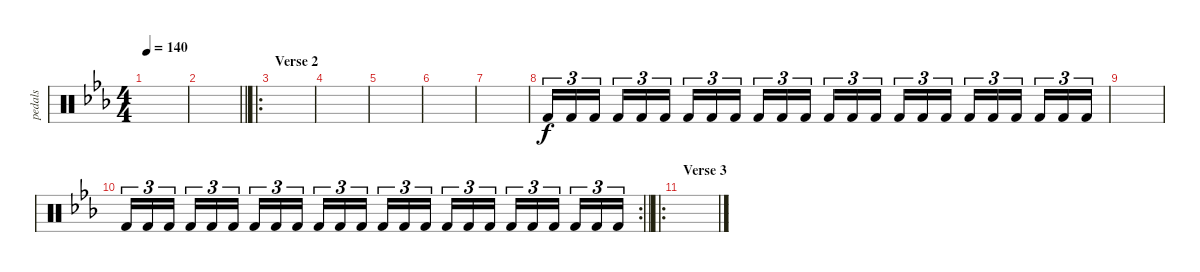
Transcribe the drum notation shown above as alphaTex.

\track ("pedals" "pedals") {instrument percussion}
\staff {score}
\articulation defaults
\ts (4 4)
\tempo 140
\clef neutral
\ks cminor
|
\barLineRight lightlight
|
\ro
\section ("" "Verse 2")
|
|
|
|
|
"Kick (hit) 2".16{tu (3 2)} "Kick (hit) 2".16{tu (3 2)} "Kick (hit) 2".16{tu (3 2) beam splitsecondary} "Kick (hit) 2".16{tu (3 2)} "Kick (hit) 2".16{tu (3 2)} "Kick (hit) 2".16{tu (3 2)} "Kick (hit) 2".16{tu (3 2)} "Kick (hit) 2".16{tu (3 2)} "Kick (hit) 2".16{tu (3 2) beam splitsecondary} "Kick (hit) 2".16{tu (3 2)} "Kick (hit) 2".16{tu (3 2)} "Kick (hit) 2".16{tu (3 2)} "Kick (hit) 2".16{tu (3 2)} "Kick (hit) 2".16{tu (3 2)} "Kick (hit) 2".16{tu (3 2) beam splitsecondary} "Kick (hit) 2".16{tu (3 2)} "Kick (hit) 2".16{tu (3 2)} "Kick (hit) 2".16{tu (3 2)} "Kick (hit) 2".16{tu (3 2)} "Kick (hit) 2".16{tu (3 2)} "Kick (hit) 2".16{tu (3 2) beam splitsecondary} "Kick (hit) 2".16{tu (3 2)} "Kick (hit) 2".16{tu (3 2)} "Kick (hit) 2".16{tu (3 2)} |
|
\rc 2
\barLineRight lightlight "Kick (hit) 2".16{tu (3 2)} "Kick (hit) 2".16{tu (3 2)} "Kick (hit) 2".16{tu (3 2) beam splitsecondary} "Kick (hit) 2".16{tu (3 2)} "Kick (hit) 2".16{tu (3 2)} "Kick (hit) 2".16{tu (3 2)} "Kick (hit) 2".16{tu (3 2)} "Kick (hit) 2".16{tu (3 2)} "Kick (hit) 2".16{tu (3 2) beam splitsecondary} "Kick (hit) 2".16{tu (3 2)} "Kick (hit) 2".16{tu (3 2)} "Kick (hit) 2".16{tu (3 2)} "Kick (hit) 2".16{tu (3 2)} "Kick (hit) 2".16{tu (3 2)} "Kick (hit) 2".16{tu (3 2) beam splitsecondary} "Kick (hit) 2".16{tu (3 2)} "Kick (hit) 2".16{tu (3 2)} "Kick (hit) 2".16{tu (3 2)} "Kick (hit) 2".16{tu (3 2)} "Kick (hit) 2".16{tu (3 2)} "Kick (hit) 2".16{tu (3 2) beam splitsecondary} "Kick (hit) 2".16{tu (3 2)} "Kick (hit) 2".16{tu (3 2)} "Kick (hit) 2".16{tu (3 2)}
|
\ro
\section ("" "Verse 3")
